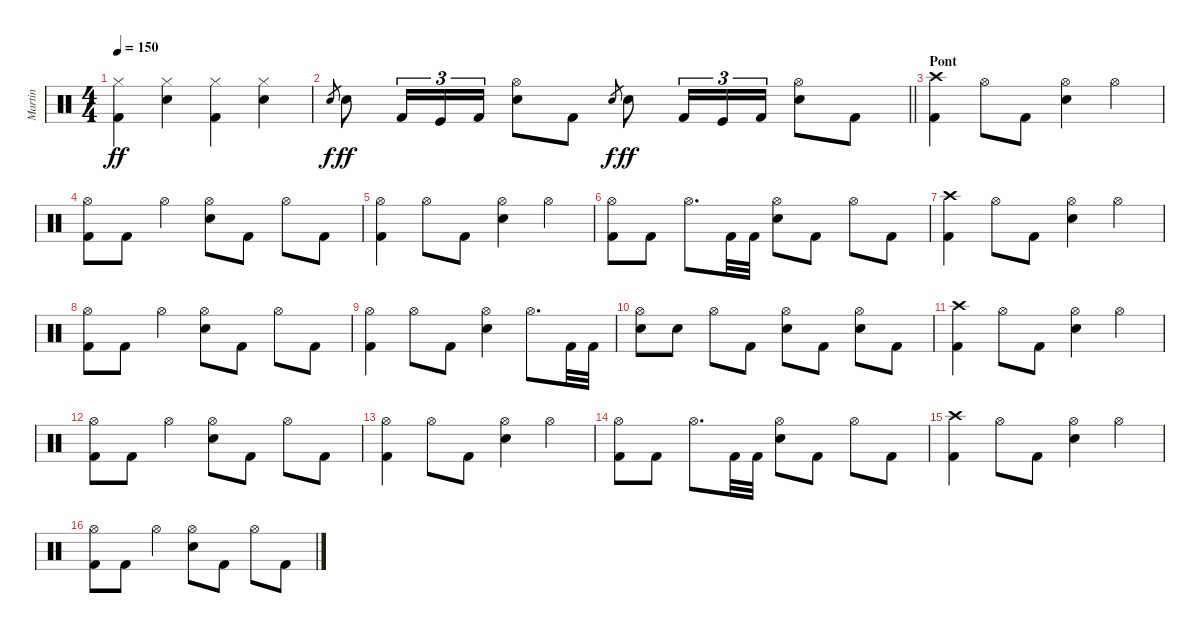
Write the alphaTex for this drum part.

\track ("Martin" "Martin") {instrument percussion}
\staff {score}
\articulation defaults
\ts (4 4)
\tempo 150
\clef neutral
\ks c
("Hi-Hat (closed)" "Kick (hit) 2").4{dy ff} ("Hi-Hat (closed)" "Electric Snare (hit)").4 ("Hi-Hat (closed)" "Kick (hit) 2").4 ("Hi-Hat (closed)" "Electric Snare (hit)").4 |
\barLineRight lightlight "Electric Snare (hit)".8{gr dy f} "Electric Snare (hit)".8{dy ff} "Kick (hit) 2".16{tu (3 2)} "Kick (hit)".16{tu (3 2)} "Kick (hit) 2".16{tu (3 2)}
("Hi-Hat (open)" "Electric Snare (hit)").8 "Kick (hit) 2".8 "Electric Snare (hit)".8{gr dy f} "Electric Snare (hit)".8{dy ff} "Kick (hit) 2".16{tu (3 2)} "Kick (hit)".16{tu (3 2)} "Kick (hit) 2".16{tu (3 2)} ("Hi-Hat (open)" "Electric Snare (hit)").8 "Kick (hit) 2".8 |
\section ("" "Pont")
("Crash high (hit)" "Kick (hit) 2").4 "Hi-Hat (open)".8 "Kick (hit) 2".8 ("Hi-Hat (open)" "Electric Snare (hit)").4 "Hi-Hat (open)".4 |
("Hi-Hat (open)" "Kick (hit) 2").8 "Kick (hit) 2".8 "Hi-Hat (open)".4 ("Hi-Hat (open)" "Electric Snare (hit)").8 "Kick (hit) 2".8 "Hi-Hat (open)".8 "Kick (hit) 2".8 |
("Hi-Hat (open)" "Kick (hit) 2").4 "Hi-Hat (open)".8 "Kick (hit) 2".8 ("Hi-Hat (open)" "Electric Snare (hit)").4 "Hi-Hat (open)".4 |
("Hi-Hat (open)" "Kick (hit) 2").8 "Kick (hit) 2".8 "Hi-Hat (open)".8{d} "Kick (hit) 2".32 "Kick (hit) 2".32 ("Hi-Hat (open)" "Electric Snare (hit)").8 "Kick (hit) 2".8 "Hi-Hat (open)".8 "Kick (hit) 2".8 |
("Crash high (hit)" "Kick (hit) 2").4 "Hi-Hat (open)".8 "Kick (hit) 2".8 ("Hi-Hat (open)" "Electric Snare (hit)").4 "Hi-Hat (open)".4 |
("Hi-Hat (open)" "Kick (hit) 2").8 "Kick (hit) 2".8 "Hi-Hat (open)".4 ("Hi-Hat (open)" "Electric Snare (hit)").8 "Kick (hit) 2".8 "Hi-Hat (open)".8 "Kick (hit) 2".8 |
("Hi-Hat (open)" "Kick (hit) 2").4 "Hi-Hat (open)".8 "Kick (hit) 2".8 ("Hi-Hat (open)" "Electric Snare (hit)").4 "Hi-Hat (open)".8{d} "Kick (hit) 2".32 "Kick (hit) 2".32 |
("Hi-Hat (open)" "Electric Snare (hit)").8 "Electric Snare (hit)".8 "Hi-Hat (open)".8 "Kick (hit) 2".8 ("Hi-Hat (open)" "Electric Snare (hit)").8 "Kick (hit) 2".8 ("Hi-Hat (open)" "Electric Snare (hit)").8 "Kick (hit) 2".8 |
("Crash high (hit)" "Kick (hit) 2").4 "Hi-Hat (open)".8 "Kick (hit) 2".8 ("Hi-Hat (open)" "Electric Snare (hit)").4 "Hi-Hat (open)".4 |
("Hi-Hat (open)" "Kick (hit) 2").8 "Kick (hit) 2".8 "Hi-Hat (open)".4 ("Hi-Hat (open)" "Electric Snare (hit)").8 "Kick (hit) 2".8 "Hi-Hat (open)".8 "Kick (hit) 2".8 |
("Hi-Hat (open)" "Kick (hit) 2").4 "Hi-Hat (open)".8 "Kick (hit) 2".8 ("Hi-Hat (open)" "Electric Snare (hit)").4 "Hi-Hat (open)".4 |
("Hi-Hat (open)" "Kick (hit) 2").8 "Kick (hit) 2".8 "Hi-Hat (open)".8{d} "Kick (hit) 2".32 "Kick (hit) 2".32 ("Hi-Hat (open)" "Electric Snare (hit)").8 "Kick (hit) 2".8 "Hi-Hat (open)".8 "Kick (hit) 2".8 |
("Crash high (hit)" "Kick (hit) 2").4 "Hi-Hat (open)".8 "Kick (hit) 2".8 ("Hi-Hat (open)" "Electric Snare (hit)").4 "Hi-Hat (open)".4 |
("Hi-Hat (open)" "Kick (hit) 2").8 "Kick (hit) 2".8 "Hi-Hat (open)".4 ("Hi-Hat (open)" "Electric Snare (hit)").8 "Kick (hit) 2".8 "Hi-Hat (open)".8 "Kick (hit) 2".8
